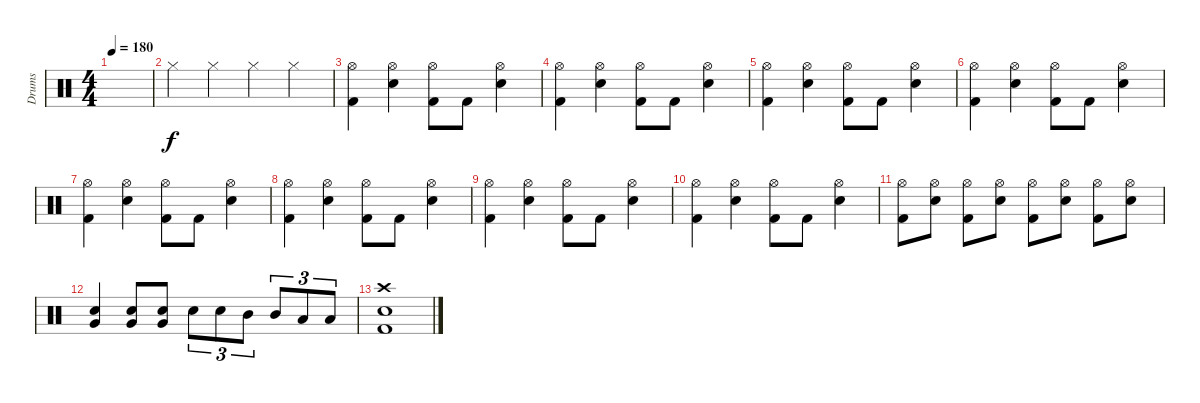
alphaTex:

\track ("Drums" "Drums") {instrument percussion}
\staff {score}
\articulation defaults
\ts (4 4)
\tempo 180
\clef neutral
\ks c
|
"Hi-Hat (closed)".4 "Hi-Hat (closed)".4 "Hi-Hat (closed)".4 "Hi-Hat (closed)".4 |
("Hi-Hat (open)" "Kick (hit) 2").4 ("Hi-Hat (open)" "Snare (hit) 2").4 ("Hi-Hat (open)" "Kick (hit) 2").8 "Kick (hit) 2".8 ("Hi-Hat (open)" "Snare (hit) 2").4 |
("Hi-Hat (open)" "Kick (hit) 2").4 ("Hi-Hat (open)" "Snare (hit) 2").4 ("Hi-Hat (open)" "Kick (hit) 2").8 "Kick (hit) 2".8 ("Hi-Hat (open)" "Snare (hit) 2").4 |
("Hi-Hat (open)" "Kick (hit) 2").4 ("Hi-Hat (open)" "Snare (hit) 2").4 ("Hi-Hat (open)" "Kick (hit) 2").8 "Kick (hit) 2".8 ("Hi-Hat (open)" "Snare (hit) 2").4 |
("Hi-Hat (open)" "Kick (hit) 2").4 ("Hi-Hat (open)" "Snare (hit) 2").4 ("Hi-Hat (open)" "Kick (hit) 2").8 "Kick (hit) 2".8 ("Hi-Hat (open)" "Snare (hit) 2").4 |
("Hi-Hat (open)" "Kick (hit) 2").4 ("Hi-Hat (open)" "Snare (hit) 2").4 ("Hi-Hat (open)" "Kick (hit) 2").8 "Kick (hit) 2".8 ("Hi-Hat (open)" "Snare (hit) 2").4 |
("Hi-Hat (open)" "Kick (hit) 2").4 ("Hi-Hat (open)" "Snare (hit) 2").4 ("Hi-Hat (open)" "Kick (hit) 2").8 "Kick (hit) 2".8 ("Hi-Hat (open)" "Snare (hit) 2").4 |
("Hi-Hat (open)" "Kick (hit) 2").4 ("Hi-Hat (open)" "Snare (hit) 2").4 ("Hi-Hat (open)" "Kick (hit) 2").8 "Kick (hit) 2".8 ("Hi-Hat (open)" "Snare (hit) 2").4 |
("Hi-Hat (open)" "Kick (hit) 2").4 ("Hi-Hat (open)" "Snare (hit) 2").4 ("Hi-Hat (open)" "Kick (hit) 2").8 "Kick (hit) 2".8 ("Hi-Hat (open)" "Snare (hit) 2").4 |
("Hi-Hat (open)" "Kick (hit) 2").8 ("Hi-Hat (open)" "Snare (hit) 2").8 ("Hi-Hat (open)" "Kick (hit) 2").8 ("Hi-Hat (open)" "Snare (hit) 2").8 ("Hi-Hat (open)" "Kick (hit) 2").8 ("Hi-Hat (open)" "Snare (hit) 2").8 ("Hi-Hat (open)" "Kick (hit) 2").8 ("Hi-Hat (open)" "Snare (hit) 2").8 |
("Snare (hit) 2" "Very Low Tom (hit)").4 ("Snare (hit) 2" "Very Low Tom (hit)").8 ("Snare (hit) 2" "Very Low Tom (hit)").8 "Snare (hit) 2".8{tu (3 2)} "Snare (hit) 2".8{tu (3 2)} "Mid Tom (hit)".8{tu (3 2)} "Mid Tom (hit)".8{tu (3 2)} "Low Tom (hit)".8{tu (3 2)} "Low Tom (hit)".8{tu (3 2)} |
("Crash high (hit)" "Snare (hit) 2" "Kick (hit) 2").1
